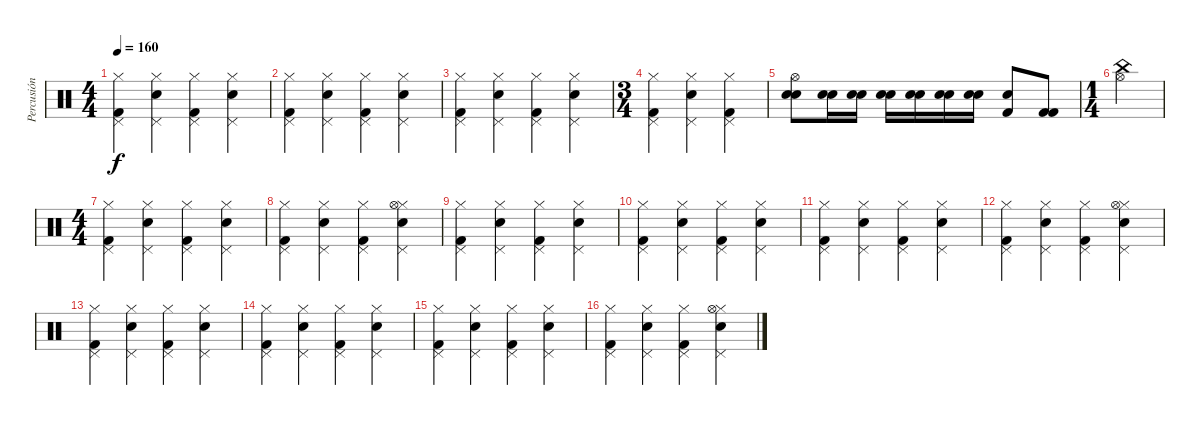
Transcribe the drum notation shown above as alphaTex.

\track ("Percusión" "Percusión") {instrument percussion}
\staff {score}
\articulation defaults
\ts (4 4)
\tempo 160
\clef neutral
\ks c
("Hi-Hat (closed)" "Kick (hit) 2" "Pedal Hi-Hat (hit)").4{dy f} ("Hi-Hat (closed)" "Snare (hit) 2" "Pedal Hi-Hat (hit)").4 ("Hi-Hat (closed)" "Kick (hit) 2" "Pedal Hi-Hat (hit)").4 ("Hi-Hat (closed)" "Snare (hit) 2" "Pedal Hi-Hat (hit)").4 |
("Hi-Hat (closed)" "Kick (hit) 2" "Pedal Hi-Hat (hit)").4 ("Hi-Hat (closed)" "Snare (hit) 2" "Pedal Hi-Hat (hit)").4 ("Hi-Hat (closed)" "Kick (hit) 2" "Pedal Hi-Hat (hit)").4 ("Hi-Hat (closed)" "Snare (hit) 2" "Pedal Hi-Hat (hit)").4 |
("Hi-Hat (closed)" "Kick (hit) 2" "Pedal Hi-Hat (hit)").4 ("Hi-Hat (closed)" "Snare (hit) 2" "Pedal Hi-Hat (hit)").4 ("Hi-Hat (closed)" "Kick (hit) 2" "Pedal Hi-Hat (hit)").4 ("Hi-Hat (closed)" "Snare (hit) 2" "Pedal Hi-Hat (hit)").4 |
\ts (3 4)
("Hi-Hat (closed)" "Kick (hit) 2" "Pedal Hi-Hat (hit)").4 ("Hi-Hat (closed)" "Snare (hit) 2" "Pedal Hi-Hat (hit)").4 ("Hi-Hat (closed)" "Kick (hit) 2" "Pedal Hi-Hat (hit)").4 |
("Hi-Hat (open)" "Electric Snare (hit)" "Electric Snare (hit)").8 ("Electric Snare (hit)" "Electric Snare (hit)").16 ("Electric Snare (hit)" "Electric Snare (hit)").16 ("Electric Snare (hit)" "Electric Snare (hit)").16 ("Electric Snare (hit)" "Electric Snare (hit)").16 ("Snare (hit) 2" "Snare (hit) 2").16 ("Snare (hit) 2" "Snare (hit) 2").16 ("Snare (hit) 2" "Kick (hit) 2").8 ("Kick (hit) 2" "Kick (hit) 2").8 |
\ts (1 4)
("Hi-Hat (open)" "China (hit)").4 |
\ts (4 4)
("Hi-Hat (closed)" "Kick (hit) 2" "Pedal Hi-Hat (hit)").4 ("Hi-Hat (closed)" "Snare (hit) 2" "Pedal Hi-Hat (hit)").4 ("Hi-Hat (closed)" "Kick (hit) 2" "Pedal Hi-Hat (hit)").4 ("Hi-Hat (closed)" "Snare (hit) 2" "Pedal Hi-Hat (hit)").4 |
("Hi-Hat (closed)" "Kick (hit) 2" "Pedal Hi-Hat (hit)").4 ("Hi-Hat (closed)" "Snare (hit) 2" "Pedal Hi-Hat (hit)").4 ("Hi-Hat (closed)" "Kick (hit) 2" "Pedal Hi-Hat (hit)").4 ("Hi-Hat (closed)" "Snare (hit) 2" "Pedal Hi-Hat (hit)" "Hi-Hat (open)").4 |
("Hi-Hat (closed)" "Kick (hit) 2" "Pedal Hi-Hat (hit)").4 ("Hi-Hat (closed)" "Snare (hit) 2" "Pedal Hi-Hat (hit)").4 ("Hi-Hat (closed)" "Kick (hit) 2" "Pedal Hi-Hat (hit)").4 ("Hi-Hat (closed)" "Snare (hit) 2" "Pedal Hi-Hat (hit)").4 |
("Hi-Hat (closed)" "Kick (hit) 2" "Pedal Hi-Hat (hit)").4 ("Hi-Hat (closed)" "Snare (hit) 2" "Pedal Hi-Hat (hit)").4 ("Hi-Hat (closed)" "Kick (hit) 2" "Pedal Hi-Hat (hit)").4 ("Hi-Hat (closed)" "Snare (hit) 2" "Pedal Hi-Hat (hit)").4 |
("Hi-Hat (closed)" "Kick (hit) 2" "Pedal Hi-Hat (hit)").4 ("Hi-Hat (closed)" "Snare (hit) 2" "Pedal Hi-Hat (hit)").4 ("Hi-Hat (closed)" "Kick (hit) 2" "Pedal Hi-Hat (hit)").4 ("Hi-Hat (closed)" "Snare (hit) 2" "Pedal Hi-Hat (hit)").4 |
("Hi-Hat (closed)" "Kick (hit) 2" "Pedal Hi-Hat (hit)").4 ("Hi-Hat (closed)" "Snare (hit) 2" "Pedal Hi-Hat (hit)").4 ("Hi-Hat (closed)" "Kick (hit) 2" "Pedal Hi-Hat (hit)").4 ("Hi-Hat (closed)" "Snare (hit) 2" "Pedal Hi-Hat (hit)" "Hi-Hat (open)").4 |
("Hi-Hat (closed)" "Kick (hit) 2" "Pedal Hi-Hat (hit)").4 ("Hi-Hat (closed)" "Snare (hit) 2" "Pedal Hi-Hat (hit)").4 ("Hi-Hat (closed)" "Kick (hit) 2" "Pedal Hi-Hat (hit)").4 ("Hi-Hat (closed)" "Snare (hit) 2" "Pedal Hi-Hat (hit)").4 |
("Hi-Hat (closed)" "Kick (hit) 2" "Pedal Hi-Hat (hit)").4 ("Hi-Hat (closed)" "Snare (hit) 2" "Pedal Hi-Hat (hit)").4 ("Hi-Hat (closed)" "Kick (hit) 2" "Pedal Hi-Hat (hit)").4 ("Hi-Hat (closed)" "Snare (hit) 2" "Pedal Hi-Hat (hit)").4 |
("Hi-Hat (closed)" "Kick (hit) 2" "Pedal Hi-Hat (hit)").4 ("Hi-Hat (closed)" "Snare (hit) 2" "Pedal Hi-Hat (hit)").4 ("Hi-Hat (closed)" "Kick (hit) 2" "Pedal Hi-Hat (hit)").4 ("Hi-Hat (closed)" "Snare (hit) 2" "Pedal Hi-Hat (hit)").4 |
("Hi-Hat (closed)" "Kick (hit) 2" "Pedal Hi-Hat (hit)").4 ("Hi-Hat (closed)" "Snare (hit) 2" "Pedal Hi-Hat (hit)").4 ("Hi-Hat (closed)" "Kick (hit) 2" "Pedal Hi-Hat (hit)").4 ("Hi-Hat (closed)" "Snare (hit) 2" "Pedal Hi-Hat (hit)" "Hi-Hat (open)").4
